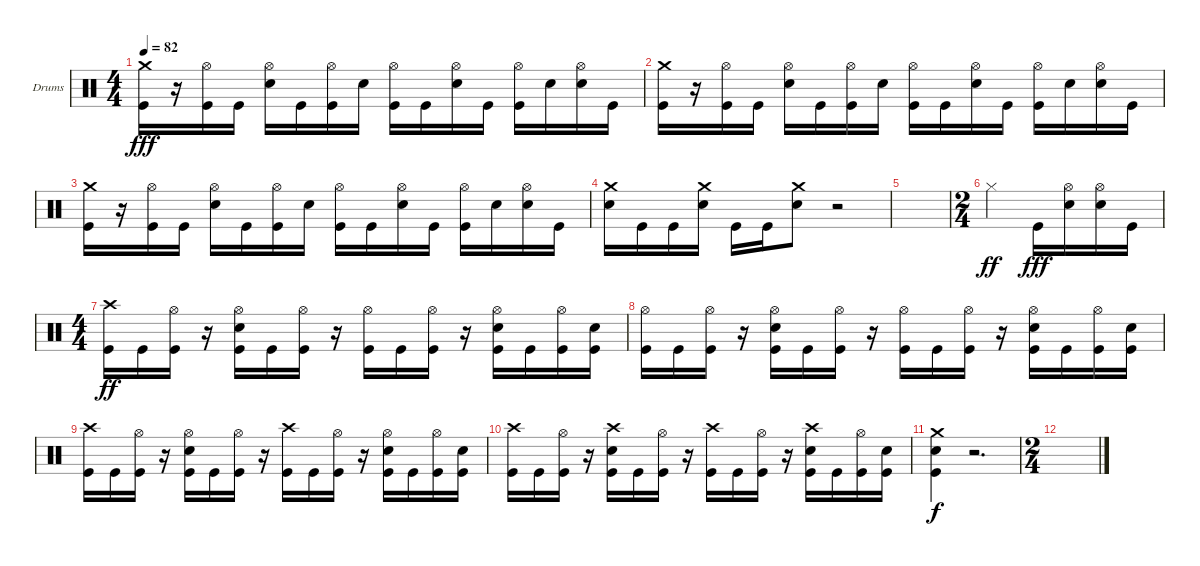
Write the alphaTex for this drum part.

\bracketExtendMode groupsimilarinstruments
\firstSystemTrackNameOrientation horizontal
\otherSystemsTrackNameOrientation horizontal
\track ("Drumkit" "Drums") {instrument percussion}
\staff {score}
\articulation defaults
\ts (4 4)
\tempo 82
\clef neutral
\ks c
("Crash medium (hit)" "Kick (hit)").16{dy fff} r.16 ("Kick (hit)" "Hi-Hat (open)").16 "Kick (hit)".16 ("Snare (hit) 2" "Hi-Hat (open)").16 "Kick (hit)".16 ("Kick (hit)" "Hi-Hat (open)").16 "Snare (hit) 2".16 ("Kick (hit)" "Hi-Hat (open)").16 "Kick (hit)".16 ("Snare (hit) 2" "Hi-Hat (open)").16 "Kick (hit)".16 ("Kick (hit)" "Hi-Hat (open)").16 "Snare (hit) 2".16 ("Snare (hit) 2" "Hi-Hat (open)").16 "Kick (hit)".16 |
("Crash medium (hit)" "Kick (hit)").16 r.16 ("Kick (hit)" "Hi-Hat (open)").16 "Kick (hit)".16 ("Snare (hit) 2" "Hi-Hat (open)").16 "Kick (hit)".16 ("Kick (hit)" "Hi-Hat (open)").16 "Snare (hit) 2".16 ("Kick (hit)" "Hi-Hat (open)").16 "Kick (hit)".16 ("Snare (hit) 2" "Hi-Hat (open)").16 "Kick (hit)".16 ("Kick (hit)" "Hi-Hat (open)").16 "Snare (hit) 2".16 ("Snare (hit) 2" "Hi-Hat (open)").16 "Kick (hit)".16 |
("Crash medium (hit)" "Kick (hit)").16 r.16 ("Kick (hit)" "Hi-Hat (open)").16 "Kick (hit)".16 ("Snare (hit) 2" "Hi-Hat (open)").16 "Kick (hit)".16 ("Kick (hit)" "Hi-Hat (open)").16 "Snare (hit) 2".16 ("Kick (hit)" "Hi-Hat (open)").16 "Kick (hit)".16 ("Snare (hit) 2" "Hi-Hat (open)").16 "Kick (hit)".16 ("Kick (hit)" "Hi-Hat (open)").16 "Snare (hit) 2".16 ("Snare (hit) 2" "Hi-Hat (open)").16 "Kick (hit)".16 |
("Crash medium (hit)" "Snare (hit) 2").16 "Kick (hit)".16 "Kick (hit)".16 ("Crash medium (hit)" "Snare (hit) 2").16 "Kick (hit)".16 "Kick (hit)".16 ("Crash medium (hit)" "Snare (hit) 2").8 r.2 |
|
\ts (2 4)
"Hi-Hat (closed)".4{dy ff} "Kick (hit)".16{dy fff} ("Snare (hit) 2" "Hi-Hat (open)").16 ("Snare (hit) 2" "Hi-Hat (open)").16 "Kick (hit)".16 |
\ts (4 4)
("Kick (hit)" "Crash high (hit)").16{dy ff} "Kick (hit)".16 ("Kick (hit)" "Hi-Hat (open)").16 r.16 ("Kick (hit)" "Snare (hit) 2" "Hi-Hat (open)").16 "Kick (hit)".16 ("Kick (hit)" "Hi-Hat (open)").16 r.16 ("Kick (hit)" "Hi-Hat (open)").16 "Kick (hit)".16 ("Kick (hit)" "Hi-Hat (open)").16 r.16 ("Kick (hit)" "Snare (hit) 2" "Hi-Hat (open)").16 "Kick (hit)".16 ("Kick (hit)" "Hi-Hat (open)").16 ("Kick (hit)" "Snare (hit) 2").16 |
("Kick (hit)" "Hi-Hat (open)").16 "Kick (hit)".16 ("Kick (hit)" "Hi-Hat (open)").16 r.16 ("Kick (hit)" "Snare (hit) 2" "Hi-Hat (open)").16 "Kick (hit)".16 ("Kick (hit)" "Hi-Hat (open)").16 r.16 ("Kick (hit)" "Hi-Hat (open)").16 "Kick (hit)".16 ("Kick (hit)" "Hi-Hat (open)").16 r.16 ("Kick (hit)" "Snare (hit) 2" "Hi-Hat (open)").16 "Kick (hit)".16 ("Kick (hit)" "Hi-Hat (open)").16 ("Kick (hit)" "Snare (hit) 2").16 |
("Kick (hit)" "Crash high (hit)").16 "Kick (hit)".16 ("Kick (hit)" "Hi-Hat (open)").16 r.16 ("Kick (hit)" "Snare (hit) 2" "Hi-Hat (open)").16 "Kick (hit)".16 ("Kick (hit)" "Hi-Hat (open)").16 r.16 ("Kick (hit)" "Crash high (hit)").16 "Kick (hit)".16 ("Kick (hit)" "Hi-Hat (open)").16 r.16 ("Kick (hit)" "Snare (hit) 2" "Hi-Hat (open)").16 "Kick (hit)".16 ("Kick (hit)" "Hi-Hat (open)").16 ("Kick (hit)" "Snare (hit) 2").16 |
("Kick (hit)" "Crash high (hit)").16 "Kick (hit)".16 ("Kick (hit)" "Hi-Hat (open)").16 r.16 ("Kick (hit)" "Snare (hit) 2" "Crash high (hit)").16 "Kick (hit)".16 ("Kick (hit)" "Hi-Hat (open)").16 r.16 ("Kick (hit)" "Crash high (hit)").16 "Kick (hit)".16 ("Kick (hit)" "Hi-Hat (open)").16 r.16 ("Kick (hit)" "Snare (hit) 2" "Crash high (hit)").16 "Kick (hit)".16 ("Kick (hit)" "Hi-Hat (open)").16 ("Kick (hit)" "Snare (hit) 2").16 |
("Crash medium (hit)" "Kick (hit)" "Snare (hit) 2").4{dy f} r.2{d} |
\ts (2 4)
